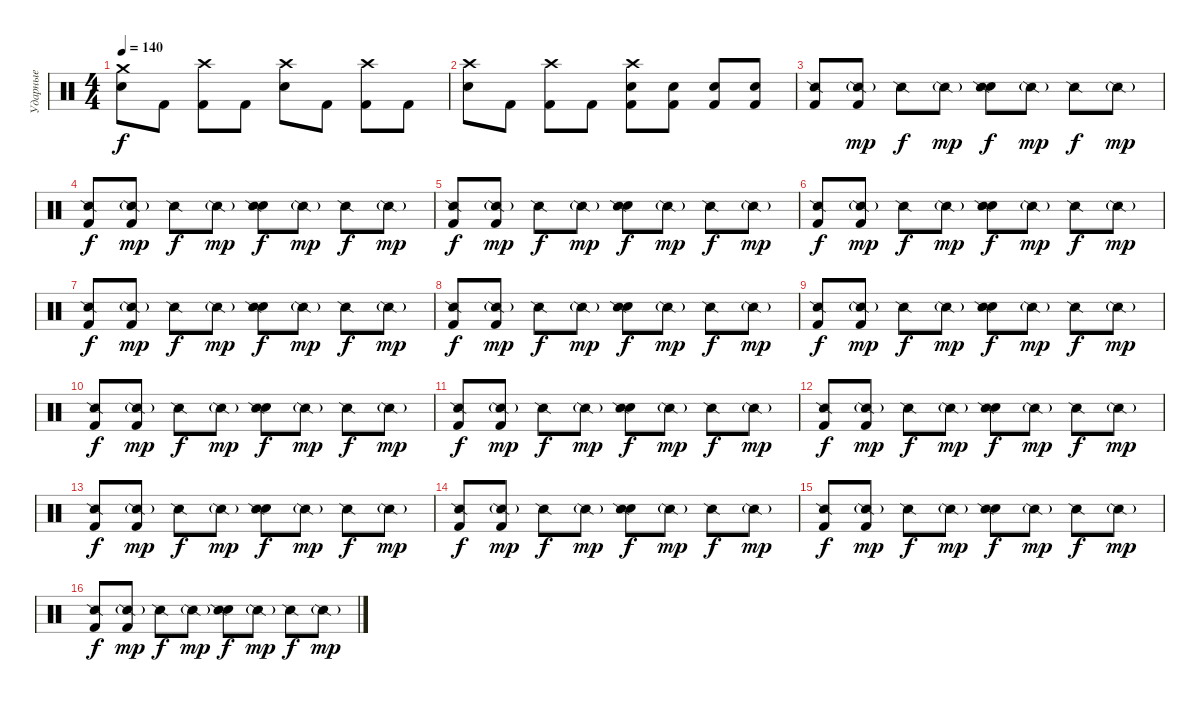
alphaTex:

\track ("Ударные" "Ударные") {instrument percussion}
\staff {score}
\articulation defaults
\ts (4 4)
\tempo 140
\clef neutral
\ks c
("Crash medium (hit)" "Electric Snare (hit)").8{dy f} "Kick (hit) 2".8 ("Crash high (hit)" "Kick (hit) 2").8 "Kick (hit) 2".8 ("Crash high (hit)" "Electric Snare (hit)").8 "Kick (hit) 2".8 ("Crash high (hit)" "Kick (hit) 2").8 "Kick (hit) 2".8 |
("Crash high (hit)" "Electric Snare (hit)").8 "Kick (hit) 2".8 ("Crash high (hit)" "Kick (hit) 2").8 "Kick (hit) 2".8 ("Crash high (hit)" "Electric Snare (hit)" "Kick (hit) 2").8 ("Electric Snare (hit)" "Kick (hit) 2").8 ("Electric Snare (hit)" "Kick (hit) 2").8 ("Electric Snare (hit)" "Kick (hit) 2").8 |
("Kick (hit) 2" "Snare (side stick) 2").8 ("Kick (hit) 2" "Snare (side stick) 2"{g}).8{dy mp} "Snare (side stick) 2".8{dy f} "Snare (side stick) 2"{g}.8{dy mp} ("Electric Snare (hit)" "Snare (side stick) 2").8{dy f} "Snare (side stick) 2"{g}.8{dy mp} "Snare (side stick) 2".8{dy f} "Snare (side stick) 2"{g}.8{dy mp} |
("Kick (hit) 2" "Snare (side stick) 2").8{dy f} ("Kick (hit) 2" "Snare (side stick) 2"{g}).8{dy mp} "Snare (side stick) 2".8{dy f} "Snare (side stick) 2"{g}.8{dy mp} ("Electric Snare (hit)" "Snare (side stick) 2").8{dy f} "Snare (side stick) 2"{g}.8{dy mp} "Snare (side stick) 2".8{dy f} "Snare (side stick) 2"{g}.8{dy mp} |
("Kick (hit) 2" "Snare (side stick) 2").8{dy f} ("Kick (hit) 2" "Snare (side stick) 2"{g}).8{dy mp} "Snare (side stick) 2".8{dy f} "Snare (side stick) 2"{g}.8{dy mp} ("Electric Snare (hit)" "Snare (side stick) 2").8{dy f} "Snare (side stick) 2"{g}.8{dy mp} "Snare (side stick) 2".8{dy f} "Snare (side stick) 2"{g}.8{dy mp} |
("Kick (hit) 2" "Snare (side stick) 2").8{dy f} ("Kick (hit) 2" "Snare (side stick) 2"{g}).8{dy mp} "Snare (side stick) 2".8{dy f} "Snare (side stick) 2"{g}.8{dy mp} ("Electric Snare (hit)" "Snare (side stick) 2").8{dy f} "Snare (side stick) 2"{g}.8{dy mp} "Snare (side stick) 2".8{dy f} "Snare (side stick) 2"{g}.8{dy mp} |
("Kick (hit) 2" "Snare (side stick) 2").8{dy f} ("Kick (hit) 2" "Snare (side stick) 2"{g}).8{dy mp} "Snare (side stick) 2".8{dy f} "Snare (side stick) 2"{g}.8{dy mp} ("Electric Snare (hit)" "Snare (side stick) 2").8{dy f} "Snare (side stick) 2"{g}.8{dy mp} "Snare (side stick) 2".8{dy f} "Snare (side stick) 2"{g}.8{dy mp} |
("Kick (hit) 2" "Snare (side stick) 2").8{dy f} ("Kick (hit) 2" "Snare (side stick) 2"{g}).8{dy mp} "Snare (side stick) 2".8{dy f} "Snare (side stick) 2"{g}.8{dy mp} ("Electric Snare (hit)" "Snare (side stick) 2").8{dy f} "Snare (side stick) 2"{g}.8{dy mp} "Snare (side stick) 2".8{dy f} "Snare (side stick) 2"{g}.8{dy mp} |
("Kick (hit) 2" "Snare (side stick) 2").8{dy f} ("Kick (hit) 2" "Snare (side stick) 2"{g}).8{dy mp} "Snare (side stick) 2".8{dy f} "Snare (side stick) 2"{g}.8{dy mp} ("Electric Snare (hit)" "Snare (side stick) 2").8{dy f} "Snare (side stick) 2"{g}.8{dy mp} "Snare (side stick) 2".8{dy f} "Snare (side stick) 2"{g}.8{dy mp} |
("Kick (hit) 2" "Snare (side stick) 2").8{dy f} ("Kick (hit) 2" "Snare (side stick) 2"{g}).8{dy mp} "Snare (side stick) 2".8{dy f} "Snare (side stick) 2"{g}.8{dy mp} ("Electric Snare (hit)" "Snare (side stick) 2").8{dy f} "Snare (side stick) 2"{g}.8{dy mp} "Snare (side stick) 2".8{dy f} "Snare (side stick) 2"{g}.8{dy mp} |
("Kick (hit) 2" "Snare (side stick) 2").8{dy f} ("Kick (hit) 2" "Snare (side stick) 2"{g}).8{dy mp} "Snare (side stick) 2".8{dy f} "Snare (side stick) 2"{g}.8{dy mp} ("Electric Snare (hit)" "Snare (side stick) 2").8{dy f} "Snare (side stick) 2"{g}.8{dy mp} "Snare (side stick) 2".8{dy f} "Snare (side stick) 2"{g}.8{dy mp} |
("Kick (hit) 2" "Snare (side stick) 2").8{dy f} ("Kick (hit) 2" "Snare (side stick) 2"{g}).8{dy mp} "Snare (side stick) 2".8{dy f} "Snare (side stick) 2"{g}.8{dy mp} ("Electric Snare (hit)" "Snare (side stick) 2").8{dy f} "Snare (side stick) 2"{g}.8{dy mp} "Snare (side stick) 2".8{dy f} "Snare (side stick) 2"{g}.8{dy mp} |
("Kick (hit) 2" "Snare (side stick) 2").8{dy f} ("Kick (hit) 2" "Snare (side stick) 2"{g}).8{dy mp} "Snare (side stick) 2".8{dy f} "Snare (side stick) 2"{g}.8{dy mp} ("Electric Snare (hit)" "Snare (side stick) 2").8{dy f} "Snare (side stick) 2"{g}.8{dy mp} "Snare (side stick) 2".8{dy f} "Snare (side stick) 2"{g}.8{dy mp} |
("Kick (hit) 2" "Snare (side stick) 2").8{dy f} ("Kick (hit) 2" "Snare (side stick) 2"{g}).8{dy mp} "Snare (side stick) 2".8{dy f} "Snare (side stick) 2"{g}.8{dy mp} ("Electric Snare (hit)" "Snare (side stick) 2").8{dy f} "Snare (side stick) 2"{g}.8{dy mp} "Snare (side stick) 2".8{dy f} "Snare (side stick) 2"{g}.8{dy mp} |
("Kick (hit) 2" "Snare (side stick) 2").8{dy f} ("Kick (hit) 2" "Snare (side stick) 2"{g}).8{dy mp} "Snare (side stick) 2".8{dy f} "Snare (side stick) 2"{g}.8{dy mp} ("Electric Snare (hit)" "Snare (side stick) 2").8{dy f} "Snare (side stick) 2"{g}.8{dy mp} "Snare (side stick) 2".8{dy f} "Snare (side stick) 2"{g}.8{dy mp} |
("Kick (hit) 2" "Snare (side stick) 2").8{dy f} ("Kick (hit) 2" "Snare (side stick) 2"{g}).8{dy mp} "Snare (side stick) 2".8{dy f} "Snare (side stick) 2"{g}.8{dy mp} ("Electric Snare (hit)" "Snare (side stick) 2").8{dy f} "Snare (side stick) 2"{g}.8{dy mp} "Snare (side stick) 2".8{dy f} "Snare (side stick) 2"{g}.8{dy mp}
